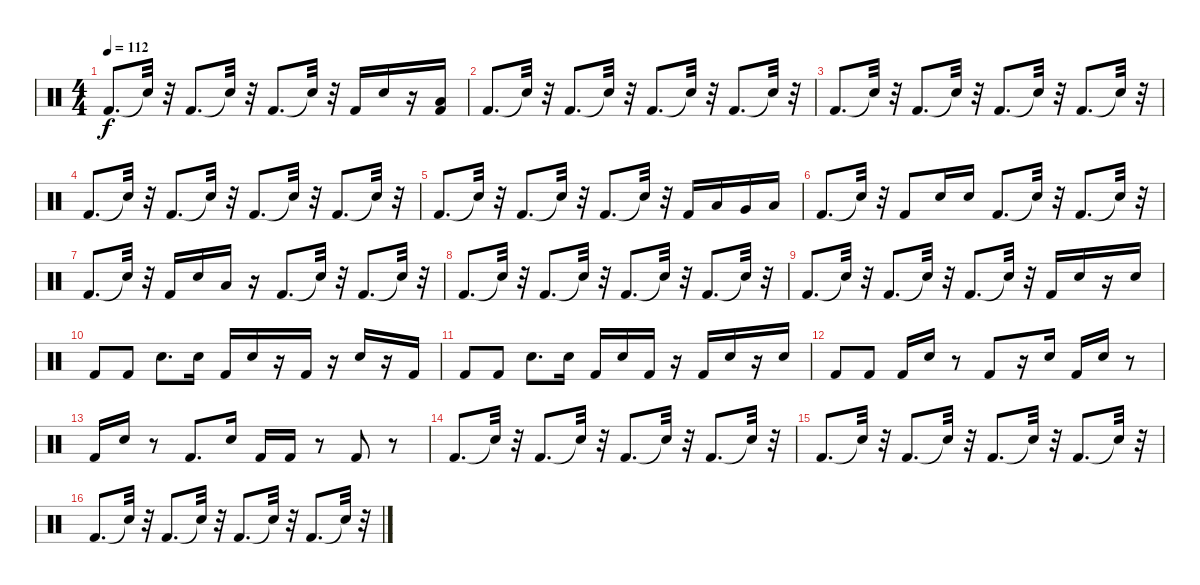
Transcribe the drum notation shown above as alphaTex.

\track "" {instrument percussion}
\staff {score}
\articulation defaults
\ts (4 4)
\tempo 112
\clef neutral
\ks c "Kick (hit) 2".8{d dy f} "Snare (hit)"{t}.32
r.32 "Kick (hit) 2".8{d} "Snare (hit)"{t}.32 r.32 "Kick (hit) 2".8{d} "Snare (hit)"{t}.32 r.32 "Kick (hit) 2".16 "Snare (hit) 2".16 r.16 ("Kick (hit) 2" "Low Floor Tom (hit)").16 |
"Kick (hit) 2".8{d} "Snare (hit)"{t}.32 r.32 "Kick (hit) 2".8{d} "Snare (hit)"{t}.32 r.32 "Kick (hit) 2".8{d} "Snare (hit)"{t}.32 r.32 "Kick (hit) 2".8{d} "Snare (hit)"{t}.32 r.32 |
"Kick (hit) 2".8{d} "Snare (hit)"{t}.32 r.32 "Kick (hit) 2".8{d} "Snare (hit)"{t}.32 r.32 "Kick (hit) 2".8{d} "Snare (hit)"{t}.32 r.32 "Kick (hit) 2".8{d} "Snare (hit)"{t}.32 r.32 |
"Kick (hit) 2".8{d} "Snare (hit)"{t}.32 r.32 "Kick (hit) 2".8{d} "Snare (hit)"{t}.32 r.32 "Kick (hit) 2".8{d} "Snare (hit)"{t}.32 r.32 "Kick (hit) 2".8{d} "Snare (hit)"{t}.32 r.32 |
"Kick (hit) 2".8{d} "Snare (hit)"{t}.32 r.32 "Kick (hit) 2".8{d} "Snare (hit)"{t}.32 r.32 "Kick (hit) 2".8{d} "Snare (hit)"{t}.32 r.32 "Kick (hit) 2".16 "Low Tom (hit)".16 "Very Low Tom (hit)".16 "Low Floor Tom (hit)".16 |
"Kick (hit) 2".8{d} "Snare (hit)"{t}.32 r.32 "Kick (hit) 2".8 "Snare (hit) 2".16 "Snare (hit) 2".16 "Kick (hit) 2".8{d} "Snare (hit)"{t}.32 r.32 "Kick (hit) 2".8{d} "Snare (hit)"{t}.32 r.32 |
"Kick (hit) 2".8{d} "Snare (hit)"{t}.32 r.32 "Kick (hit) 2".16 "Snare (hit) 2".16 "Low Floor Tom (hit)".16 r.16 "Kick (hit) 2".8{d} "Snare (hit)"{t}.32 r.32 "Kick (hit) 2".8{d} "Snare (hit)"{t}.32 r.32 |
"Kick (hit) 2".8{d} "Snare (hit)"{t}.32 r.32 "Kick (hit) 2".8{d} "Snare (hit)"{t}.32 r.32 "Kick (hit) 2".8{d} "Snare (hit)"{t}.32 r.32 "Kick (hit) 2".8{d} "Snare (hit)"{t}.32 r.32 |
"Kick (hit) 2".8{d} "Snare (hit)"{t}.32 r.32 "Kick (hit) 2".8{d} "Snare (hit)"{t}.32 r.32 "Kick (hit) 2".8{d} "Snare (hit)"{t}.32 r.32 "Kick (hit) 2".16 "Snare (hit) 2".16 r.16 "Snare (hit) 2".16 |
"Kick (hit) 2".8 "Kick (hit) 2".8 "Snare (hit) 2".8{d} "Snare (hit) 2".16 "Kick (hit) 2".16 "Snare (hit) 2".16 r.16 "Kick (hit) 2".16 r.16 "Snare (hit) 2".16 r.16 "Kick (hit) 2".16 |
"Kick (hit) 2".8 "Kick (hit) 2".8 "Snare (hit) 2".8{d} "Snare (hit) 2".16 "Kick (hit) 2".16 "Snare (hit) 2".16 "Kick (hit) 2".16 r.16 "Kick (hit) 2".16 "Snare (hit) 2".16 r.16 "Snare (hit) 2".16 |
"Kick (hit) 2".8 "Kick (hit) 2".8 "Kick (hit) 2".16 "Snare (hit) 2".16 r.8 "Kick (hit) 2".8 r.16 "Snare (hit) 2".16 "Kick (hit) 2".16 "Snare (hit) 2".16 r.8 |
"Kick (hit) 2".16 "Snare (hit) 2".16 r.8 "Kick (hit) 2".8{d} "Snare (hit) 2".16 "Kick (hit) 2".16 "Kick (hit) 2".16 r.8 "Kick (hit) 2".8 r.8 |
"Kick (hit) 2".8{d} "Snare (hit)"{t}.32 r.32 "Kick (hit) 2".8{d} "Snare (hit)"{t}.32 r.32 "Kick (hit) 2".8{d} "Snare (hit)"{t}.32 r.32 "Kick (hit) 2".8{d} "Snare (hit)"{t}.32 r.32 |
"Kick (hit) 2".8{d} "Snare (hit)"{t}.32 r.32 "Kick (hit) 2".8{d} "Snare (hit)"{t}.32 r.32 "Kick (hit) 2".8{d} "Snare (hit)"{t}.32 r.32 "Kick (hit) 2".8{d} "Snare (hit)"{t}.32 r.32 |
"Kick (hit) 2".8{d} "Snare (hit)"{t}.32 r.32 "Kick (hit) 2".8{d} "Snare (hit)"{t}.32 r.32 "Kick (hit) 2".8{d} "Snare (hit)"{t}.32 r.32 "Kick (hit) 2".8{d} "Snare (hit)"{t}.32 r.32
